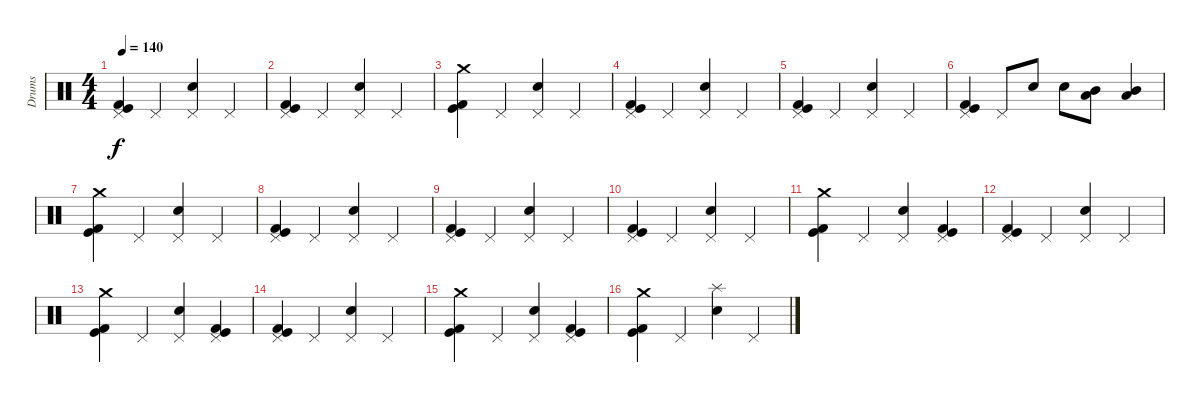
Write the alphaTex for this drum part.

\track ("Drums" "Drums") {instrument percussion}
\staff {score}
\articulation defaults
\ts (4 4)
\tempo 140
\clef neutral
\ks c
("Pedal Hi-Hat (hit)" "Kick (hit) 2" "Kick (hit)").4{dy f} "Pedal Hi-Hat (hit)".4 ("Pedal Hi-Hat (hit)" "Snare (hit) 2").4 "Pedal Hi-Hat (hit)".4 |
("Pedal Hi-Hat (hit)" "Kick (hit) 2" "Kick (hit)").4 "Pedal Hi-Hat (hit)".4 ("Pedal Hi-Hat (hit)" "Snare (hit) 2").4 "Pedal Hi-Hat (hit)".4 |
("Kick (hit)" "Kick (hit) 2" "Crash medium (hit)").4 "Pedal Hi-Hat (hit)".4 ("Pedal Hi-Hat (hit)" "Snare (hit) 2").4 "Pedal Hi-Hat (hit)".4 |
("Pedal Hi-Hat (hit)" "Kick (hit) 2" "Kick (hit)").4 "Pedal Hi-Hat (hit)".4 ("Pedal Hi-Hat (hit)" "Snare (hit) 2").4 "Pedal Hi-Hat (hit)".4 |
("Pedal Hi-Hat (hit)" "Kick (hit) 2" "Kick (hit)").4 "Pedal Hi-Hat (hit)".4 ("Pedal Hi-Hat (hit)" "Snare (hit) 2").4 "Pedal Hi-Hat (hit)".4 |
("Pedal Hi-Hat (hit)" "Kick (hit)" "Kick (hit) 2").4 "Pedal Hi-Hat (hit)".8 "Snare (hit) 2".8 "Snare (hit) 2".8 ("Low Tom (hit)" "Mid Tom (hit)").8 ("Low Tom (hit)" "Mid Tom (hit)").4 |
("Kick (hit)" "Kick (hit) 2" "Crash medium (hit)").4 "Pedal Hi-Hat (hit)".4 ("Pedal Hi-Hat (hit)" "Snare (hit) 2").4 "Pedal Hi-Hat (hit)".4 |
("Pedal Hi-Hat (hit)" "Kick (hit) 2" "Kick (hit)").4 "Pedal Hi-Hat (hit)".4 ("Pedal Hi-Hat (hit)" "Snare (hit) 2").4 "Pedal Hi-Hat (hit)".4 |
("Pedal Hi-Hat (hit)" "Kick (hit) 2" "Kick (hit)").4 "Pedal Hi-Hat (hit)".4 ("Pedal Hi-Hat (hit)" "Snare (hit) 2").4 "Pedal Hi-Hat (hit)".4 |
("Pedal Hi-Hat (hit)" "Kick (hit) 2" "Kick (hit)").4 "Pedal Hi-Hat (hit)".4 ("Pedal Hi-Hat (hit)" "Snare (hit) 2").4 "Pedal Hi-Hat (hit)".4 |
("Kick (hit) 2" "Kick (hit)" "Crash medium (hit)").4 "Pedal Hi-Hat (hit)".4 ("Snare (hit) 2" "Pedal Hi-Hat (hit)").4 ("Kick (hit)" "Kick (hit) 2" "Pedal Hi-Hat (hit)").4 |
("Pedal Hi-Hat (hit)" "Kick (hit) 2" "Kick (hit)").4 "Pedal Hi-Hat (hit)".4 ("Pedal Hi-Hat (hit)" "Snare (hit) 2").4 "Pedal Hi-Hat (hit)".4 |
("Kick (hit) 2" "Kick (hit)" "Crash medium (hit)").4 "Pedal Hi-Hat (hit)".4 ("Pedal Hi-Hat (hit)" "Snare (hit) 2").4 ("Kick (hit)" "Kick (hit) 2" "Pedal Hi-Hat (hit)").4 |
("Pedal Hi-Hat (hit)" "Kick (hit) 2" "Kick (hit)").4 "Pedal Hi-Hat (hit)".4 ("Pedal Hi-Hat (hit)" "Snare (hit) 2").4 "Pedal Hi-Hat (hit)".4 |
("Kick (hit) 2" "Kick (hit)" "Crash medium (hit)").4 "Pedal Hi-Hat (hit)".4 ("Pedal Hi-Hat (hit)" "Snare (hit) 2").4 ("Kick (hit)" "Kick (hit) 2" "Pedal Hi-Hat (hit)").4 |
("Kick (hit) 2" "Kick (hit)" "Crash medium (hit)").4 "Pedal Hi-Hat (hit)".4 ("Splash (hit)" "Snare (hit) 2").4 "Pedal Hi-Hat (hit)".4
